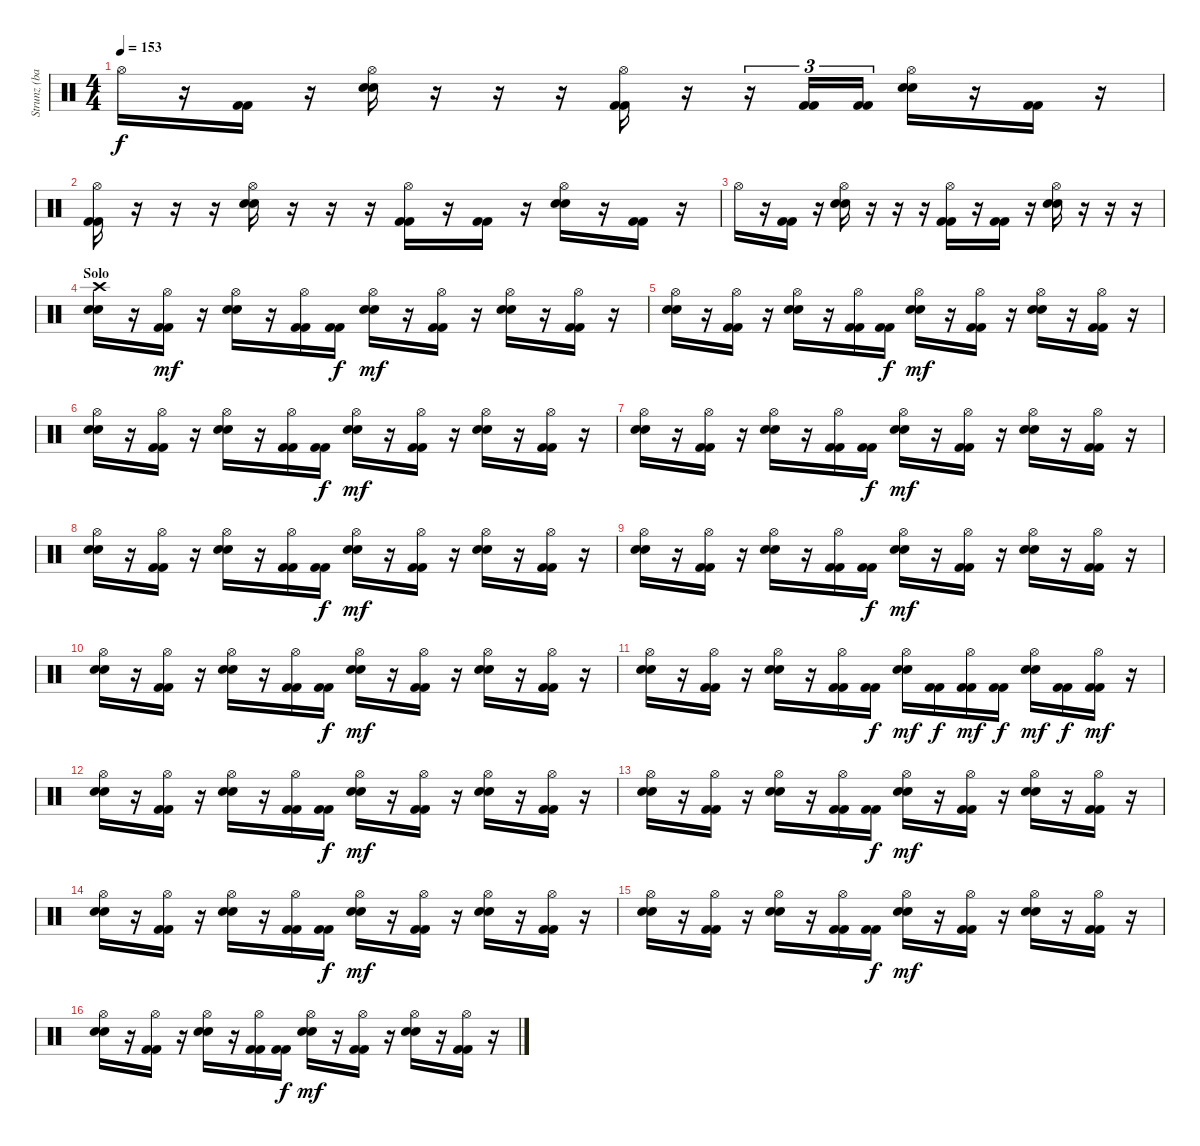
\track ("Strunz (bateria)" "Strunz (ba") {instrument percussion}
\staff {score}
\articulation defaults
\ts (4 4)
\tempo 153
\clef neutral
\ks c "Hi-Hat (open)".16{dy f}
r.16 ("Kick (hit) 2" "Kick (hit) 2").16 r.16 ("Hi-Hat (open)" "Snare (hit) 2" "Snare (hit) 2").16 r.16 r.16 r.16 ("Hi-Hat (open)" "Kick (hit) 2" "Kick (hit) 2").16 r.16 r.16{tu (3 2)} ("Kick (hit) 2" "Kick (hit) 2").16{tu (3 2)} ("Kick (hit) 2" "Kick (hit) 2").16{tu (3 2)} ("Hi-Hat (open)" "Snare (hit) 2" "Snare (hit) 2").16 r.16 ("Kick (hit) 2" "Kick (hit) 2").16 r.16 |
("Hi-Hat (open)" "Kick (hit) 2" "Kick (hit) 2").16 r.16 r.16 r.16 ("Hi-Hat (open)" "Snare (hit) 2" "Snare (hit) 2").16 r.16 r.16 r.16 ("Hi-Hat (open)" "Kick (hit) 2" "Kick (hit) 2").16 r.16 ("Kick (hit) 2" "Kick (hit) 2").16 r.16 ("Hi-Hat (open)" "Snare (hit) 2" "Snare (hit) 2").16 r.16 ("Kick (hit) 2" "Kick (hit) 2").16 r.16 |
"Hi-Hat (open)".16 r.16 ("Kick (hit) 2" "Kick (hit) 2").16 r.16 ("Hi-Hat (open)" "Snare (hit) 2" "Snare (hit) 2").16 r.16 r.16 r.16 ("Hi-Hat (open)" "Kick (hit) 2" "Kick (hit) 2").16 r.16 ("Kick (hit) 2" "Kick (hit) 2").16 r.16 ("Hi-Hat (open)" "Snare (hit) 2" "Snare (hit) 2").16 r.16 r.16 r.16 |
\section ("" "Solo")
("Crash high (hit)" "Snare (hit) 2" "Snare (hit) 2").16 r.16 ("Hi-Hat (open)" "Kick (hit) 2" "Kick (hit) 2").16{dy mf} r.16 ("Hi-Hat (open)" "Snare (hit) 2" "Snare (hit) 2").16 r.16 ("Hi-Hat (open)" "Kick (hit) 2" "Kick (hit) 2").16 ("Kick (hit) 2" "Kick (hit) 2").16{dy f} ("Hi-Hat (open)" "Snare (hit) 2" "Snare (hit) 2").16{dy mf} r.16 ("Hi-Hat (open)" "Kick (hit) 2" "Kick (hit) 2").16 r.16 ("Hi-Hat (open)" "Snare (hit) 2" "Snare (hit) 2").16 r.16 ("Hi-Hat (open)" "Kick (hit) 2" "Kick (hit) 2").16 r.16 |
("Hi-Hat (open)" "Snare (hit) 2" "Snare (hit) 2").16 r.16 ("Hi-Hat (open)" "Kick (hit) 2" "Kick (hit) 2").16 r.16 ("Hi-Hat (open)" "Snare (hit) 2" "Snare (hit) 2").16 r.16 ("Hi-Hat (open)" "Kick (hit) 2" "Kick (hit) 2").16 ("Kick (hit) 2" "Kick (hit) 2").16{dy f} ("Hi-Hat (open)" "Snare (hit) 2" "Snare (hit) 2").16{dy mf} r.16 ("Hi-Hat (open)" "Kick (hit) 2" "Kick (hit) 2").16 r.16 ("Hi-Hat (open)" "Snare (hit) 2" "Snare (hit) 2").16 r.16 ("Hi-Hat (open)" "Kick (hit) 2" "Kick (hit) 2").16 r.16 |
("Hi-Hat (open)" "Snare (hit) 2" "Snare (hit) 2").16 r.16 ("Hi-Hat (open)" "Kick (hit) 2" "Kick (hit) 2").16 r.16 ("Hi-Hat (open)" "Snare (hit) 2" "Snare (hit) 2").16 r.16 ("Hi-Hat (open)" "Kick (hit) 2" "Kick (hit) 2").16 ("Kick (hit) 2" "Kick (hit) 2").16{dy f} ("Hi-Hat (open)" "Snare (hit) 2" "Snare (hit) 2").16{dy mf} r.16 ("Hi-Hat (open)" "Kick (hit) 2" "Kick (hit) 2").16 r.16 ("Hi-Hat (open)" "Snare (hit) 2" "Snare (hit) 2").16 r.16 ("Hi-Hat (open)" "Kick (hit) 2" "Kick (hit) 2").16 r.16 |
("Hi-Hat (open)" "Snare (hit) 2" "Snare (hit) 2").16 r.16 ("Hi-Hat (open)" "Kick (hit) 2" "Kick (hit) 2").16 r.16 ("Hi-Hat (open)" "Snare (hit) 2" "Snare (hit) 2").16 r.16 ("Hi-Hat (open)" "Kick (hit) 2" "Kick (hit) 2").16 ("Kick (hit) 2" "Kick (hit) 2").16{dy f} ("Hi-Hat (open)" "Snare (hit) 2" "Snare (hit) 2").16{dy mf} r.16 ("Hi-Hat (open)" "Kick (hit) 2" "Kick (hit) 2").16 r.16 ("Hi-Hat (open)" "Snare (hit) 2" "Snare (hit) 2").16 r.16 ("Hi-Hat (open)" "Kick (hit) 2" "Kick (hit) 2").16 r.16 |
("Hi-Hat (open)" "Snare (hit) 2" "Snare (hit) 2").16 r.16 ("Hi-Hat (open)" "Kick (hit) 2" "Kick (hit) 2").16 r.16 ("Hi-Hat (open)" "Snare (hit) 2" "Snare (hit) 2").16 r.16 ("Hi-Hat (open)" "Kick (hit) 2" "Kick (hit) 2").16 ("Kick (hit) 2" "Kick (hit) 2").16{dy f} ("Hi-Hat (open)" "Snare (hit) 2" "Snare (hit) 2").16{dy mf} r.16 ("Hi-Hat (open)" "Kick (hit) 2" "Kick (hit) 2").16 r.16 ("Hi-Hat (open)" "Snare (hit) 2" "Snare (hit) 2").16 r.16 ("Hi-Hat (open)" "Kick (hit) 2" "Kick (hit) 2").16 r.16 |
("Hi-Hat (open)" "Snare (hit) 2" "Snare (hit) 2").16 r.16 ("Hi-Hat (open)" "Kick (hit) 2" "Kick (hit) 2").16 r.16 ("Hi-Hat (open)" "Snare (hit) 2" "Snare (hit) 2").16 r.16 ("Hi-Hat (open)" "Kick (hit) 2" "Kick (hit) 2").16 ("Kick (hit) 2" "Kick (hit) 2").16{dy f} ("Hi-Hat (open)" "Snare (hit) 2" "Snare (hit) 2").16{dy mf} r.16 ("Hi-Hat (open)" "Kick (hit) 2" "Kick (hit) 2").16 r.16 ("Hi-Hat (open)" "Snare (hit) 2" "Snare (hit) 2").16 r.16 ("Hi-Hat (open)" "Kick (hit) 2" "Kick (hit) 2").16 r.16 |
("Hi-Hat (open)" "Snare (hit) 2" "Snare (hit) 2").16 r.16 ("Hi-Hat (open)" "Kick (hit) 2" "Kick (hit) 2").16 r.16 ("Hi-Hat (open)" "Snare (hit) 2" "Snare (hit) 2").16 r.16 ("Hi-Hat (open)" "Kick (hit) 2" "Kick (hit) 2").16 ("Kick (hit) 2" "Kick (hit) 2").16{dy f} ("Hi-Hat (open)" "Snare (hit) 2" "Snare (hit) 2").16{dy mf} r.16 ("Hi-Hat (open)" "Kick (hit) 2" "Kick (hit) 2").16 r.16 ("Hi-Hat (open)" "Snare (hit) 2" "Snare (hit) 2").16 r.16 ("Hi-Hat (open)" "Kick (hit) 2" "Kick (hit) 2").16 r.16 |
("Hi-Hat (open)" "Snare (hit) 2" "Snare (hit) 2").16 r.16 ("Hi-Hat (open)" "Kick (hit) 2" "Kick (hit) 2").16 r.16 ("Hi-Hat (open)" "Snare (hit) 2" "Snare (hit) 2").16 r.16 ("Hi-Hat (open)" "Kick (hit) 2" "Kick (hit) 2").16 ("Kick (hit) 2" "Kick (hit) 2").16{dy f} ("Hi-Hat (open)" "Snare (hit) 2" "Snare (hit) 2").16{dy mf} ("Kick (hit) 2" "Kick (hit) 2").16{dy f} ("Hi-Hat (open)" "Kick (hit) 2" "Kick (hit) 2").16{dy mf} ("Kick (hit) 2" "Kick (hit) 2").16{dy f} ("Hi-Hat (open)" "Snare (hit) 2" "Snare (hit) 2").16{dy mf} ("Kick (hit) 2" "Kick (hit) 2").16{dy f} ("Hi-Hat (open)" "Kick (hit) 2" "Kick (hit) 2").16{dy mf} r.16 |
("Hi-Hat (open)" "Snare (hit) 2" "Snare (hit) 2").16 r.16 ("Hi-Hat (open)" "Kick (hit) 2" "Kick (hit) 2").16 r.16 ("Hi-Hat (open)" "Snare (hit) 2" "Snare (hit) 2").16 r.16 ("Hi-Hat (open)" "Kick (hit) 2" "Kick (hit) 2").16 ("Kick (hit) 2" "Kick (hit) 2").16{dy f} ("Hi-Hat (open)" "Snare (hit) 2" "Snare (hit) 2").16{dy mf} r.16 ("Hi-Hat (open)" "Kick (hit) 2" "Kick (hit) 2").16 r.16 ("Hi-Hat (open)" "Snare (hit) 2" "Snare (hit) 2").16 r.16 ("Hi-Hat (open)" "Kick (hit) 2" "Kick (hit) 2").16 r.16 |
("Hi-Hat (open)" "Snare (hit) 2" "Snare (hit) 2").16 r.16 ("Hi-Hat (open)" "Kick (hit) 2" "Kick (hit) 2").16 r.16 ("Hi-Hat (open)" "Snare (hit) 2" "Snare (hit) 2").16 r.16 ("Hi-Hat (open)" "Kick (hit) 2" "Kick (hit) 2").16 ("Kick (hit) 2" "Kick (hit) 2").16{dy f} ("Hi-Hat (open)" "Snare (hit) 2" "Snare (hit) 2").16{dy mf} r.16 ("Hi-Hat (open)" "Kick (hit) 2" "Kick (hit) 2").16 r.16 ("Hi-Hat (open)" "Snare (hit) 2" "Snare (hit) 2").16 r.16 ("Hi-Hat (open)" "Kick (hit) 2" "Kick (hit) 2").16 r.16 |
("Hi-Hat (open)" "Snare (hit) 2" "Snare (hit) 2").16 r.16 ("Hi-Hat (open)" "Kick (hit) 2" "Kick (hit) 2").16 r.16 ("Hi-Hat (open)" "Snare (hit) 2" "Snare (hit) 2").16 r.16 ("Hi-Hat (open)" "Kick (hit) 2" "Kick (hit) 2").16 ("Kick (hit) 2" "Kick (hit) 2").16{dy f} ("Hi-Hat (open)" "Snare (hit) 2" "Snare (hit) 2").16{dy mf} r.16 ("Hi-Hat (open)" "Kick (hit) 2" "Kick (hit) 2").16 r.16 ("Hi-Hat (open)" "Snare (hit) 2" "Snare (hit) 2").16 r.16 ("Hi-Hat (open)" "Kick (hit) 2" "Kick (hit) 2").16 r.16 |
("Hi-Hat (open)" "Snare (hit) 2" "Snare (hit) 2").16 r.16 ("Hi-Hat (open)" "Kick (hit) 2" "Kick (hit) 2").16 r.16 ("Hi-Hat (open)" "Snare (hit) 2" "Snare (hit) 2").16 r.16 ("Hi-Hat (open)" "Kick (hit) 2" "Kick (hit) 2").16 ("Kick (hit) 2" "Kick (hit) 2").16{dy f} ("Hi-Hat (open)" "Snare (hit) 2" "Snare (hit) 2").16{dy mf} r.16 ("Hi-Hat (open)" "Kick (hit) 2" "Kick (hit) 2").16 r.16 ("Hi-Hat (open)" "Snare (hit) 2" "Snare (hit) 2").16 r.16 ("Hi-Hat (open)" "Kick (hit) 2" "Kick (hit) 2").16 r.16 |
("Hi-Hat (open)" "Snare (hit) 2" "Snare (hit) 2").16 r.16 ("Hi-Hat (open)" "Kick (hit) 2" "Kick (hit) 2").16 r.16 ("Hi-Hat (open)" "Snare (hit) 2" "Snare (hit) 2").16 r.16 ("Hi-Hat (open)" "Kick (hit) 2" "Kick (hit) 2").16 ("Kick (hit) 2" "Kick (hit) 2").16{dy f} ("Hi-Hat (open)" "Snare (hit) 2" "Snare (hit) 2").16{dy mf} r.16 ("Hi-Hat (open)" "Kick (hit) 2" "Kick (hit) 2").16 r.16 ("Hi-Hat (open)" "Snare (hit) 2" "Snare (hit) 2").16 r.16 ("Hi-Hat (open)" "Kick (hit) 2" "Kick (hit) 2").16 r.16
